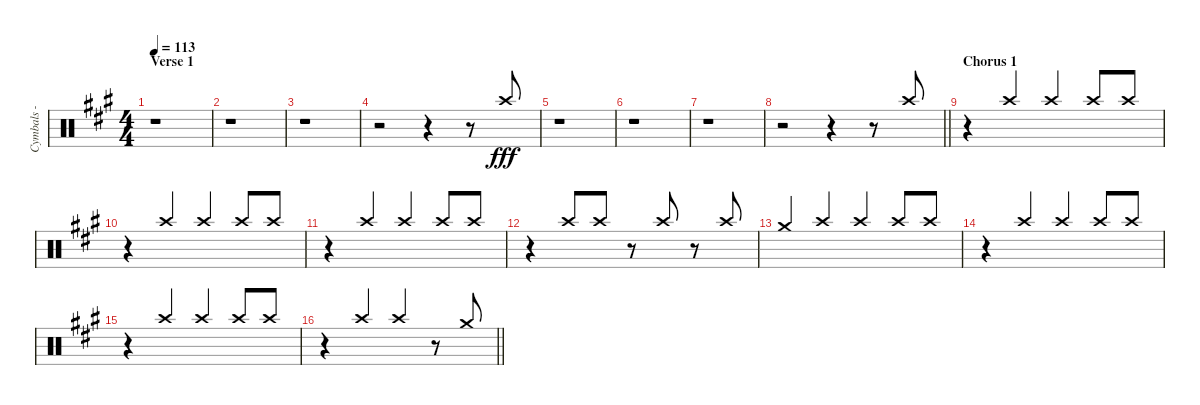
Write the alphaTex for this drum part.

\track ("Cymbals - crash" "Cymbals - ") {instrument percussion}
\staff {score}
\articulation defaults
\ts (4 4)
\section ("" "Verse 1")
\tempo 113
\clef neutral
\ks f#minor
r.1{dy fff} |
r.1 |
r.1 |
r.2 r.4 r.8 "Crash high (hit)".8{beam Up} |
r.1 |
r.1 |
r.1 |
\barLineRight lightlight
r.2 r.4 r.8 "Crash high (hit)".8{beam Up} |
\section ("" "Chorus 1")
r.4 "Crash high (hit)".4{beam Up} "Crash high (hit)".4{beam Up} "Crash high (hit)".8{beam Up} "Crash high (hit)".8{beam Up} |
r.4 "Crash high (hit)".4{beam Up} "Crash high (hit)".4{beam Up} "Crash high (hit)".8{beam Up} "Crash high (hit)".8{beam Up} |
r.4 "Crash high (hit)".4{beam Up} "Crash high (hit)".4{beam Up} "Crash high (hit)".8{beam Up} "Crash high (hit)".8{beam Up} |
r.4 "Crash high (hit)".8{beam Up} "Crash high (hit)".8{beam Up} r.8 "Crash high (hit)".8{beam Up} r.8 "Crash high (hit)".8{beam Up} |
"Crash medium (hit)".4{beam Up} "Crash high (hit)".4{beam Up} "Crash high (hit)".4{beam Up} "Crash high (hit)".8{beam Up} "Crash high (hit)".8{beam Up} |
r.4 "Crash high (hit)".4{beam Up} "Crash high (hit)".4{beam Up} "Crash high (hit)".8{beam Up} "Crash high (hit)".8{beam Up} |
r.4 "Crash high (hit)".4{beam Up} "Crash high (hit)".4{beam Up} "Crash high (hit)".8{beam Up} "Crash high (hit)".8{beam Up} |
\barLineRight lightlight
r.4 "Crash high (hit)".4{beam Up} "Crash high (hit)".4{beam Up} r.8 "Crash medium (hit)".8{beam Up}
